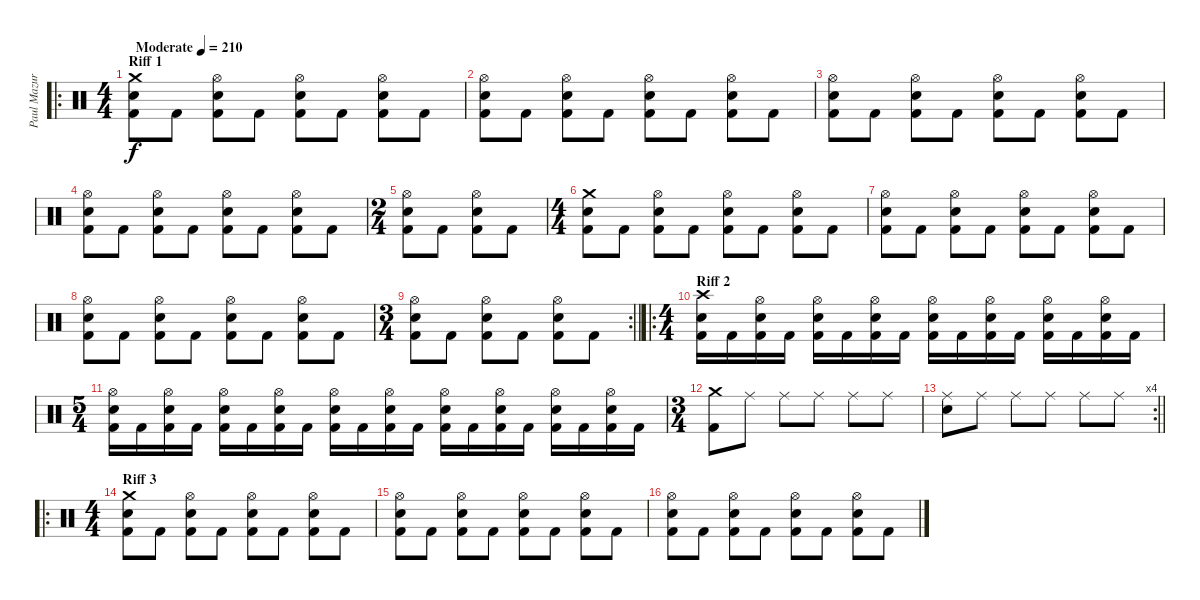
\track ("Paul Mazurkiewicz" "Paul Mazur") {instrument percussion}
\staff {score}
\articulation defaults
\ro
\ts (4 4)
\section ("" "Riff 1")
\tempo (210 "Moderate")
\clef neutral
\ks c
("Crash medium (hit)" "Electric Snare (hit)" "Kick (hit) 2").8{dy f} "Kick (hit) 2".8 ("Hi-Hat (open)" "Electric Snare (hit)" "Kick (hit) 2").8 "Kick (hit) 2".8 ("Hi-Hat (open)" "Electric Snare (hit)" "Kick (hit) 2").8 "Kick (hit) 2".8 ("Hi-Hat (open)" "Electric Snare (hit)" "Kick (hit) 2").8 "Kick (hit) 2".8 |
("Hi-Hat (open)" "Electric Snare (hit)" "Kick (hit) 2").8 "Kick (hit) 2".8 ("Hi-Hat (open)" "Electric Snare (hit)" "Kick (hit) 2").8 "Kick (hit) 2".8 ("Hi-Hat (open)" "Electric Snare (hit)" "Kick (hit) 2").8 "Kick (hit) 2".8 ("Hi-Hat (open)" "Electric Snare (hit)" "Kick (hit) 2").8 "Kick (hit) 2".8 |
("Hi-Hat (open)" "Electric Snare (hit)" "Kick (hit) 2").8 "Kick (hit) 2".8 ("Hi-Hat (open)" "Electric Snare (hit)" "Kick (hit) 2").8 "Kick (hit) 2".8 ("Hi-Hat (open)" "Electric Snare (hit)" "Kick (hit) 2").8 "Kick (hit) 2".8 ("Hi-Hat (open)" "Electric Snare (hit)" "Kick (hit) 2").8 "Kick (hit) 2".8 |
("Hi-Hat (open)" "Electric Snare (hit)" "Kick (hit) 2").8 "Kick (hit) 2".8 ("Hi-Hat (open)" "Electric Snare (hit)" "Kick (hit) 2").8 "Kick (hit) 2".8 ("Hi-Hat (open)" "Electric Snare (hit)" "Kick (hit) 2").8 "Kick (hit) 2".8 ("Hi-Hat (open)" "Electric Snare (hit)" "Kick (hit) 2").8 "Kick (hit) 2".8 |
\ts (2 4)
("Hi-Hat (open)" "Electric Snare (hit)" "Kick (hit) 2").8 "Kick (hit) 2".8 ("Hi-Hat (open)" "Electric Snare (hit)" "Kick (hit) 2").8 "Kick (hit) 2".8 |
\ts (4 4)
("Crash medium (hit)" "Electric Snare (hit)" "Kick (hit) 2").8 "Kick (hit) 2".8 ("Hi-Hat (open)" "Electric Snare (hit)" "Kick (hit) 2").8 "Kick (hit) 2".8 ("Hi-Hat (open)" "Electric Snare (hit)" "Kick (hit) 2").8 "Kick (hit) 2".8 ("Hi-Hat (open)" "Electric Snare (hit)" "Kick (hit) 2").8 "Kick (hit) 2".8 |
("Hi-Hat (open)" "Electric Snare (hit)" "Kick (hit) 2").8 "Kick (hit) 2".8 ("Hi-Hat (open)" "Electric Snare (hit)" "Kick (hit) 2").8 "Kick (hit) 2".8 ("Hi-Hat (open)" "Electric Snare (hit)" "Kick (hit) 2").8 "Kick (hit) 2".8 ("Hi-Hat (open)" "Electric Snare (hit)" "Kick (hit) 2").8 "Kick (hit) 2".8 |
("Hi-Hat (open)" "Electric Snare (hit)" "Kick (hit) 2").8 "Kick (hit) 2".8 ("Hi-Hat (open)" "Electric Snare (hit)" "Kick (hit) 2").8 "Kick (hit) 2".8 ("Hi-Hat (open)" "Electric Snare (hit)" "Kick (hit) 2").8 "Kick (hit) 2".8 ("Hi-Hat (open)" "Electric Snare (hit)" "Kick (hit) 2").8 "Kick (hit) 2".8 |
\rc 2
\ts (3 4)
\barLineRight lightlight
("Hi-Hat (open)" "Electric Snare (hit)" "Kick (hit) 2").8 "Kick (hit) 2".8 ("Hi-Hat (open)" "Electric Snare (hit)" "Kick (hit) 2").8 "Kick (hit) 2".8 ("Hi-Hat (open)" "Electric Snare (hit)" "Kick (hit) 2").8 "Kick (hit) 2".8 |
\ro
\ts (4 4)
\section ("" "Riff 2")
("Crash high (hit)" "Electric Snare (hit)" "Kick (hit) 2").16 "Kick (hit) 2".16 ("Hi-Hat (open)" "Electric Snare (hit)" "Kick (hit) 2").16 "Kick (hit) 2".16 ("Hi-Hat (open)" "Electric Snare (hit)" "Kick (hit) 2").16 "Kick (hit) 2".16 ("Hi-Hat (open)" "Electric Snare (hit)" "Kick (hit) 2").16 "Kick (hit) 2".16 ("Hi-Hat (open)" "Electric Snare (hit)" "Kick (hit) 2").16 "Kick (hit) 2".16 ("Hi-Hat (open)" "Electric Snare (hit)" "Kick (hit) 2").16 "Kick (hit) 2".16 ("Hi-Hat (open)" "Electric Snare (hit)" "Kick (hit) 2").16 "Kick (hit) 2".16 ("Hi-Hat (open)" "Electric Snare (hit)" "Kick (hit) 2").16 "Kick (hit) 2".16 |
\ts (5 4)
("Hi-Hat (open)" "Electric Snare (hit)" "Kick (hit) 2").16 "Kick (hit) 2".16 ("Hi-Hat (open)" "Electric Snare (hit)" "Kick (hit) 2").16 "Kick (hit) 2".16 ("Hi-Hat (open)" "Electric Snare (hit)" "Kick (hit) 2").16 "Kick (hit) 2".16 ("Hi-Hat (open)" "Electric Snare (hit)" "Kick (hit) 2").16 "Kick (hit) 2".16 ("Hi-Hat (open)" "Electric Snare (hit)" "Kick (hit) 2").16 "Kick (hit) 2".16 ("Hi-Hat (open)" "Electric Snare (hit)" "Kick (hit) 2").16 "Kick (hit) 2".16 ("Hi-Hat (open)" "Electric Snare (hit)" "Kick (hit) 2").16 "Kick (hit) 2".16 ("Hi-Hat (open)" "Electric Snare (hit)" "Kick (hit) 2").16 "Kick (hit) 2".16 ("Hi-Hat (open)" "Electric Snare (hit)" "Kick (hit) 2").16 "Kick (hit) 2".16 ("Hi-Hat (open)" "Electric Snare (hit)" "Kick (hit) 2").16 "Kick (hit) 2".16 |
\ts (3 4)
("Crash medium (hit)" "Kick (hit) 2").8 "Ride (middle)".8 "Ride (middle)".8 "Ride (middle)".8 "Ride (middle)".8 "Ride (middle)".8 |
\rc 4
\barLineRight lightlight
("Ride (middle)" "Electric Snare (hit)").8 "Ride (middle)".8 "Ride (middle)".8 "Ride (middle)".8 "Ride (middle)".8 "Ride (middle)".8 |
\ro
\ts (4 4)
\section ("" "Riff 3")
("Crash medium (hit)" "Electric Snare (hit)" "Kick (hit) 2").8 "Kick (hit) 2".8 ("Hi-Hat (open)" "Electric Snare (hit)" "Kick (hit) 2").8 "Kick (hit) 2".8 ("Hi-Hat (open)" "Electric Snare (hit)" "Kick (hit) 2").8 "Kick (hit) 2".8 ("Hi-Hat (open)" "Electric Snare (hit)" "Kick (hit) 2").8 "Kick (hit) 2".8 |
("Hi-Hat (open)" "Electric Snare (hit)" "Kick (hit) 2").8 "Kick (hit) 2".8 ("Hi-Hat (open)" "Electric Snare (hit)" "Kick (hit) 2").8 "Kick (hit) 2".8 ("Hi-Hat (open)" "Electric Snare (hit)" "Kick (hit) 2").8 "Kick (hit) 2".8 ("Hi-Hat (open)" "Electric Snare (hit)" "Kick (hit) 2").8 "Kick (hit) 2".8 |
("Hi-Hat (open)" "Electric Snare (hit)" "Kick (hit) 2").8 "Kick (hit) 2".8 ("Hi-Hat (open)" "Electric Snare (hit)" "Kick (hit) 2").8 "Kick (hit) 2".8 ("Hi-Hat (open)" "Electric Snare (hit)" "Kick (hit) 2").8 "Kick (hit) 2".8 ("Hi-Hat (open)" "Electric Snare (hit)" "Kick (hit) 2").8 "Kick (hit) 2".8
